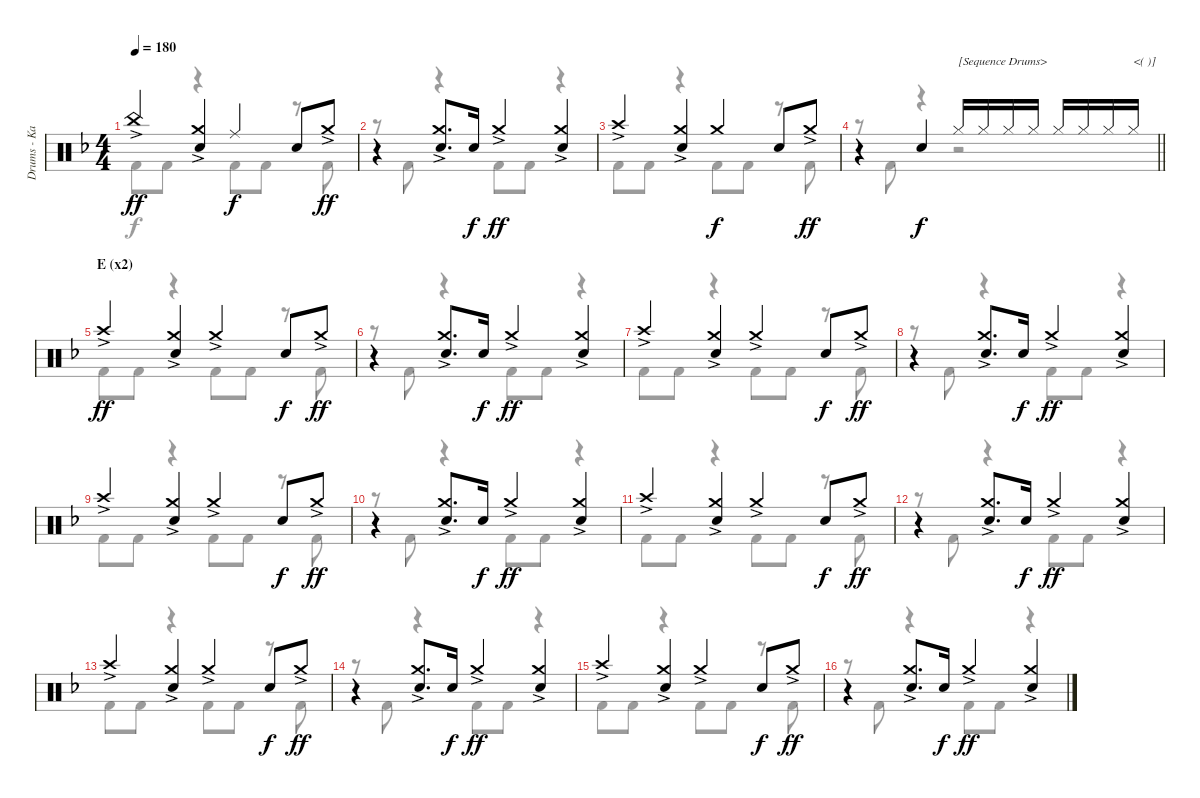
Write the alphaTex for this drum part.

\track ("Drums - Kai" "Drums - Ka") {instrument percussion}
\staff {score}
\articulation defaults
\voice
\ts (4 4)
\tempo 180
\clef neutral
\ks f "China (hit)"{ac}.4{dy ff}
("Crash medium (hit)"{ac} "Snare (hit) 2").4 "Ride (middle)".4{dy f} "Snare (hit) 2".8 "Crash medium (hit)"{ac}.8{dy ff} |
r.4 ("Crash medium (hit)"{ac} "Snare (hit) 2").8{d} "Snare (hit) 2".16{dy f} "Crash medium (hit)"{ac}.4{dy ff} ("Crash medium (hit)"{ac} "Snare (hit) 2").4 |
"Crash high (hit)"{ac}.4 ("Crash medium (hit)"{ac} "Snare (hit) 2").4 "Crash medium (hit)".4{dy f} "Snare (hit) 2".8 "Crash medium (hit)"{ac}.8{dy ff} |
\barLineRight lightlight
r.4 "Snare (hit) 2".4{dy f} "Hi-Hat (closed)".16{txt "[Sequence Drums>"} "Hi-Hat (closed)".16 "Hi-Hat (closed)".16 "Hi-Hat (closed)".16 "Hi-Hat (closed)".16 "Hi-Hat (closed)".16 "Hi-Hat (closed)".16 "Hi-Hat (closed)".16{txt "<( )]"} |
\section ("" "E (x2)")
"Crash high (hit)"{ac}.4{dy ff} ("Crash medium (hit)"{ac} "Snare (hit) 2").4 "Crash medium (hit)"{ac}.4 "Snare (hit) 2".8{dy f} "Crash medium (hit)"{ac}.8{dy ff} |
r.4 ("Crash medium (hit)"{ac} "Snare (hit) 2").8{d} "Snare (hit) 2".16{dy f} "Crash medium (hit)"{ac}.4{dy ff} ("Crash medium (hit)"{ac} "Snare (hit) 2").4 |
"Crash high (hit)"{ac}.4 ("Crash medium (hit)"{ac} "Snare (hit) 2").4 "Crash medium (hit)"{ac}.4 "Snare (hit) 2".8{dy f} "Crash medium (hit)"{ac}.8{dy ff} |
r.4 ("Crash medium (hit)"{ac} "Snare (hit) 2").8{d} "Snare (hit) 2".16{dy f} "Crash medium (hit)"{ac}.4{dy ff} ("Crash medium (hit)"{ac} "Snare (hit) 2").4 |
"Crash high (hit)"{ac}.4 ("Crash medium (hit)"{ac} "Snare (hit) 2").4 "Crash medium (hit)"{ac}.4 "Snare (hit) 2".8{dy f} "Crash medium (hit)"{ac}.8{dy ff} |
r.4 ("Crash medium (hit)"{ac} "Snare (hit) 2").8{d} "Snare (hit) 2".16{dy f} "Crash medium (hit)"{ac}.4{dy ff} ("Crash medium (hit)"{ac} "Snare (hit) 2").4 |
"Crash high (hit)"{ac}.4 ("Crash medium (hit)"{ac} "Snare (hit) 2").4 "Crash medium (hit)"{ac}.4 "Snare (hit) 2".8{dy f} "Crash medium (hit)"{ac}.8{dy ff} |
r.4 ("Crash medium (hit)"{ac} "Snare (hit) 2").8{d} "Snare (hit) 2".16{dy f} "Crash medium (hit)"{ac}.4{dy ff} ("Crash medium (hit)"{ac} "Snare (hit) 2").4 |
"Crash high (hit)"{ac}.4 ("Crash medium (hit)"{ac} "Snare (hit) 2").4 "Crash medium (hit)"{ac}.4 "Snare (hit) 2".8{dy f} "Crash medium (hit)"{ac}.8{dy ff} |
r.4 ("Crash medium (hit)"{ac} "Snare (hit) 2").8{d} "Snare (hit) 2".16{dy f} "Crash medium (hit)"{ac}.4{dy ff} ("Crash medium (hit)"{ac} "Snare (hit) 2").4 |
"Crash high (hit)"{ac}.4 ("Crash medium (hit)"{ac} "Snare (hit) 2").4 "Crash medium (hit)"{ac}.4 "Snare (hit) 2".8{dy f} "Crash medium (hit)"{ac}.8{dy ff} |
r.4 ("Crash medium (hit)"{ac} "Snare (hit) 2").8{d} "Snare (hit) 2".16{dy f} "Crash medium (hit)"{ac}.4{dy ff} ("Crash medium (hit)"{ac} "Snare (hit) 2").4
\voice
\clef neutral
\ottava regular
\simile none
\ks f "Kick (hit) 2".8{dy f} "Kick (hit) 2".8
r.4 "Kick (hit) 2".8 "Kick (hit) 2".8 r.8 "Kick (hit) 2".8 |
r.8 "Kick (hit) 2".8 r.4 "Kick (hit) 2".8 "Kick (hit) 2".8 r.4 |
"Kick (hit) 2".8 "Kick (hit) 2".8 r.4 "Kick (hit) 2".8 "Kick (hit) 2".8 r.8 "Kick (hit) 2".8 |
\barLineRight lightlight
r.8 "Kick (hit) 2".8 r.4 r.2 |
"Kick (hit) 2".8 "Kick (hit) 2".8 r.4 "Kick (hit) 2".8 "Kick (hit) 2".8 r.8 "Kick (hit) 2".8 |
r.8 "Kick (hit) 2".8 r.4 "Kick (hit) 2".8 "Kick (hit) 2".8 r.4 |
"Kick (hit) 2".8 "Kick (hit) 2".8 r.4 "Kick (hit) 2".8 "Kick (hit) 2".8 r.8 "Kick (hit) 2".8 |
r.8 "Kick (hit) 2".8 r.4 "Kick (hit) 2".8 "Kick (hit) 2".8 r.4 |
"Kick (hit) 2".8 "Kick (hit) 2".8 r.4 "Kick (hit) 2".8 "Kick (hit) 2".8 r.8 "Kick (hit) 2".8 |
r.8 "Kick (hit) 2".8 r.4 "Kick (hit) 2".8 "Kick (hit) 2".8 r.4 |
"Kick (hit) 2".8 "Kick (hit) 2".8 r.4 "Kick (hit) 2".8 "Kick (hit) 2".8 r.8 "Kick (hit) 2".8 |
r.8 "Kick (hit) 2".8 r.4 "Kick (hit) 2".8 "Kick (hit) 2".8 r.4 |
"Kick (hit) 2".8 "Kick (hit) 2".8 r.4 "Kick (hit) 2".8 "Kick (hit) 2".8 r.8 "Kick (hit) 2".8 |
r.8 "Kick (hit) 2".8 r.4 "Kick (hit) 2".8 "Kick (hit) 2".8 r.4 |
"Kick (hit) 2".8 "Kick (hit) 2".8 r.4 "Kick (hit) 2".8 "Kick (hit) 2".8 r.8 "Kick (hit) 2".8 |
r.8 "Kick (hit) 2".8 r.4 "Kick (hit) 2".8 "Kick (hit) 2".8 r.4
